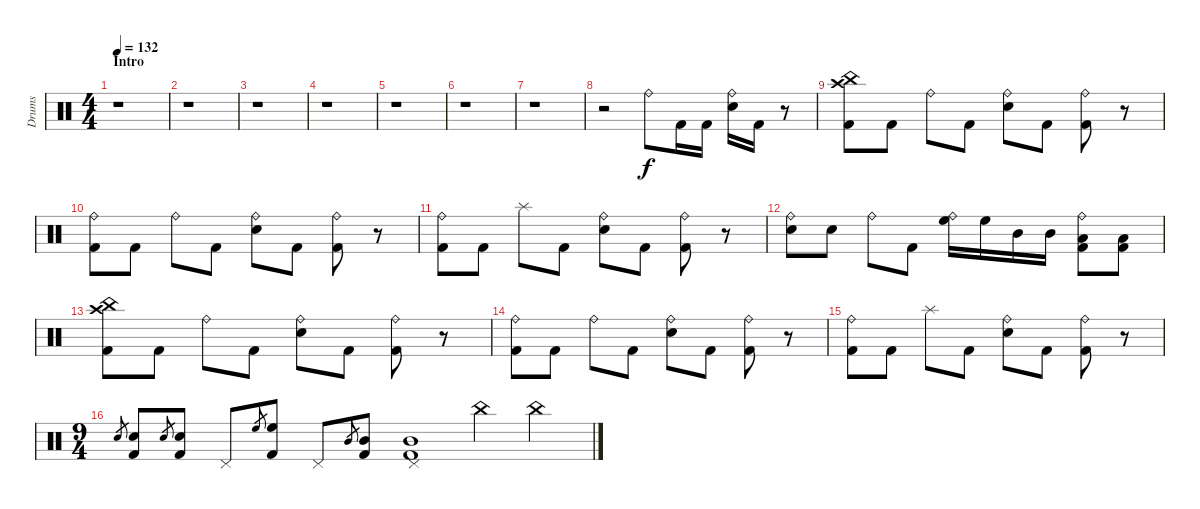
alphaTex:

\track ("Drums" "Drums") {instrument percussion}
\staff {score}
\articulation defaults
\ts (4 4)
\section ("" "Intro")
\tempo 132
\clef neutral
\ks c
r.1{dy f} |
r.1 |
r.1 |
r.1 |
r.1 |
r.1 |
r.1 |
r.2 "Ride (bell)".8 "Kick (hit) 2".16 "Kick (hit) 2".16 ("Ride (bell)" "Electric Snare (hit)").16 "Kick (hit) 2".16 r.8 |
("Crash high (hit)" "China (hit)" "Kick (hit) 2").8 "Kick (hit) 2".8 "Ride (bell)".8 "Kick (hit) 2".8 ("Ride (bell)" "Electric Snare (hit)").8 "Kick (hit) 2".8 ("Ride (bell)" "Kick (hit) 2").8 r.8 |
("Ride (bell)" "Kick (hit) 2").8 "Kick (hit) 2".8 "Ride (bell)".8 "Kick (hit) 2".8 ("Ride (bell)" "Electric Snare (hit)").8 "Kick (hit) 2".8 ("Ride (bell)" "Kick (hit) 2").8 r.8 |
("Ride (bell)" "Kick (hit) 2").8 "Kick (hit) 2".8 "Splash (hit)".8 "Kick (hit) 2".8 ("Ride (bell)" "Electric Snare (hit)").8 "Kick (hit) 2".8 ("Ride (bell)" "Kick (hit) 2").8 r.8 |
("Ride (bell)" "Electric Snare (hit)").8 "Electric Snare (hit)".8 "Ride (bell)".8 "Kick (hit) 2".8 ("Ride (bell)" "High Floor Tom (hit)").16 "High Floor Tom (hit)".16 "Mid Tom (hit)".16 "Mid Tom (hit)".16 ("Ride (bell)" "Low Tom (hit)" "Kick (hit) 2").8 ("Low Tom (hit)" "Kick (hit) 2").8 |
("Crash high (hit)" "China (hit)" "Kick (hit) 2").8 "Kick (hit) 2".8 "Ride (bell)".8 "Kick (hit) 2".8 ("Ride (bell)" "Electric Snare (hit)").8 "Kick (hit) 2".8 ("Ride (bell)" "Kick (hit) 2").8 r.8 |
("Ride (bell)" "Kick (hit) 2").8 "Kick (hit) 2".8 "Ride (bell)".8 "Kick (hit) 2".8 ("Ride (bell)" "Electric Snare (hit)").8 "Kick (hit) 2".8 ("Ride (bell)" "Kick (hit) 2").8 r.8 |
("Ride (bell)" "Kick (hit) 2").8 "Kick (hit) 2".8 "Splash (hit)".8 "Kick (hit) 2".8 ("Ride (bell)" "Electric Snare (hit)").8 "Kick (hit) 2".8 ("Ride (bell)" "Kick (hit) 2").8 r.8 |
\ts (9 4)
"Electric Snare (hit)".8{gr} ("Electric Snare (hit)" "Kick (hit) 2").8 "Electric Snare (hit)".8{gr} ("Electric Snare (hit)" "Kick (hit) 2").8 "Pedal Hi-Hat (hit)".8 "High Floor Tom (hit)".8{gr} ("High Floor Tom (hit)" "Kick (hit) 2").8 "Pedal Hi-Hat (hit)".8 "Mid Tom (hit)".8{gr} ("Mid Tom (hit)" "Kick (hit) 2").8 ("Pedal Hi-Hat (hit)" "Mid Tom (hit)" "Kick (hit) 2").1 "China (hit)".4 "China (hit)".4
